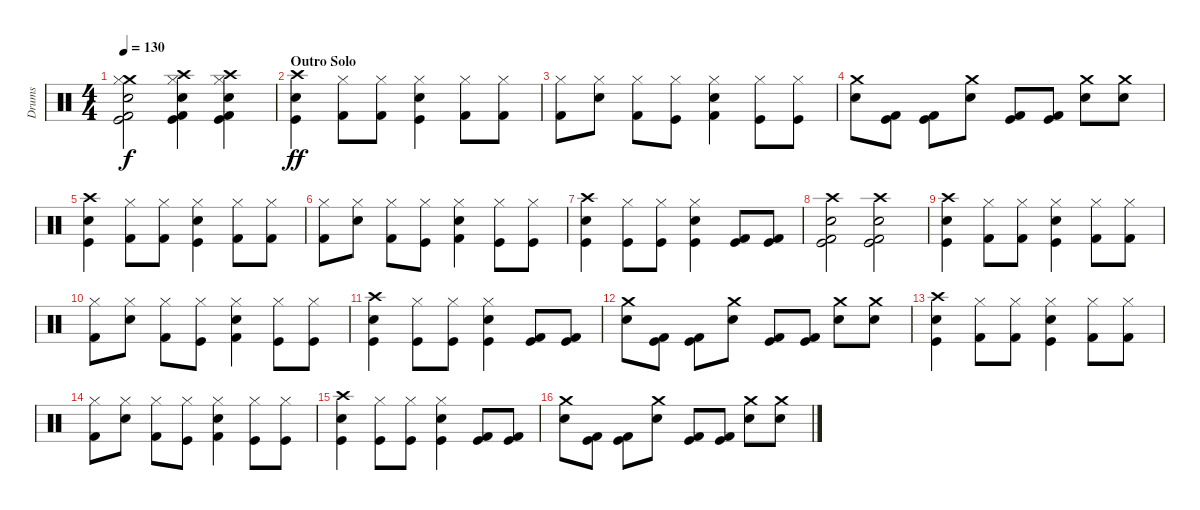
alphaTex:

\track ("Drums" "Drums") {instrument percussion}
\staff {score}
\articulation defaults
\ts (4 4)
\tempo 130
\clef neutral
\ks c
("Crash medium (hit)" "Hi-Hat (closed)" "Snare (hit) 2" "Kick (hit)" "Kick (hit) 2").2{dy f} ("Crash high (hit)" "Hi-Hat (closed)" "Snare (hit) 2" "Kick (hit)" "Kick (hit) 2").4 ("Crash high (hit)" "Hi-Hat (closed)" "Snare (hit) 2" "Kick (hit)" "Kick (hit) 2").4 |
\section ("" "Outro Solo")
("Crash high (hit)" "Snare (hit) 2" "Kick (hit)").4{dy ff} ("Hi-Hat (closed)" "Kick (hit) 2").8 ("Hi-Hat (closed)" "Kick (hit) 2").8 ("Hi-Hat (closed)" "Snare (hit) 2" "Kick (hit)").4 ("Hi-Hat (closed)" "Kick (hit) 2").8 ("Hi-Hat (closed)" "Kick (hit) 2").8 |
("Hi-Hat (closed)" "Kick (hit) 2").8 ("Hi-Hat (closed)" "Snare (hit) 2").8 ("Hi-Hat (closed)" "Kick (hit) 2").8 ("Hi-Hat (closed)" "Kick (hit)").8 ("Hi-Hat (closed)" "Kick (hit) 2" "Snare (hit) 2").4 ("Hi-Hat (closed)" "Kick (hit)").8 ("Hi-Hat (closed)" "Kick (hit)").8 |
("Crash medium (hit)" "Snare (hit) 2").8 ("Kick (hit) 2" "Kick (hit)").8 ("Kick (hit) 2" "Kick (hit)").8 ("Crash medium (hit)" "Snare (hit) 2").8 ("Kick (hit) 2" "Kick (hit)").8 ("Kick (hit) 2" "Kick (hit)").8 ("Crash medium (hit)" "Snare (hit) 2").8 ("Crash medium (hit)" "Snare (hit) 2").8 |
("Crash high (hit)" "Snare (hit) 2" "Kick (hit)").4 ("Hi-Hat (closed)" "Kick (hit) 2").8 ("Hi-Hat (closed)" "Kick (hit) 2").8 ("Hi-Hat (closed)" "Snare (hit) 2" "Kick (hit)").4 ("Hi-Hat (closed)" "Kick (hit) 2").8 ("Hi-Hat (closed)" "Kick (hit) 2").8 |
("Hi-Hat (closed)" "Kick (hit) 2").8 ("Hi-Hat (closed)" "Snare (hit) 2").8 ("Hi-Hat (closed)" "Kick (hit) 2").8 ("Hi-Hat (closed)" "Kick (hit)").8 ("Hi-Hat (closed)" "Kick (hit) 2" "Snare (hit) 2").4 ("Hi-Hat (closed)" "Kick (hit)").8 ("Hi-Hat (closed)" "Kick (hit)").8 |
("Crash high (hit)" "Snare (hit) 2" "Kick (hit)").4 ("Hi-Hat (closed)" "Kick (hit)").8 ("Hi-Hat (closed)" "Kick (hit)").8 ("Hi-Hat (closed)" "Snare (hit) 2" "Kick (hit)").4 ("Kick (hit) 2" "Kick (hit)").8 ("Kick (hit) 2" "Kick (hit)").8 |
("Crash high (hit)" "Snare (hit) 2" "Kick (hit) 2" "Kick (hit)").2 ("Crash high (hit)" "Snare (hit) 2" "Kick (hit) 2" "Kick (hit)").2 |
("Crash high (hit)" "Snare (hit) 2" "Kick (hit)").4 ("Hi-Hat (closed)" "Kick (hit) 2").8 ("Hi-Hat (closed)" "Kick (hit) 2").8 ("Hi-Hat (closed)" "Snare (hit) 2" "Kick (hit)").4 ("Hi-Hat (closed)" "Kick (hit) 2").8 ("Hi-Hat (closed)" "Kick (hit) 2").8 |
("Hi-Hat (closed)" "Kick (hit) 2").8 ("Hi-Hat (closed)" "Snare (hit) 2").8 ("Hi-Hat (closed)" "Kick (hit) 2").8 ("Hi-Hat (closed)" "Kick (hit)").8 ("Hi-Hat (closed)" "Kick (hit) 2" "Snare (hit) 2").4 ("Hi-Hat (closed)" "Kick (hit)").8 ("Hi-Hat (closed)" "Kick (hit)").8 |
("Crash high (hit)" "Snare (hit) 2" "Kick (hit)").4 ("Hi-Hat (closed)" "Kick (hit)").8 ("Hi-Hat (closed)" "Kick (hit)").8 ("Hi-Hat (closed)" "Snare (hit) 2" "Kick (hit)").4 ("Kick (hit) 2" "Kick (hit)").8 ("Kick (hit) 2" "Kick (hit)").8 |
("Crash medium (hit)" "Snare (hit) 2").8 ("Kick (hit) 2" "Kick (hit)").8 ("Kick (hit) 2" "Kick (hit)").8 ("Crash medium (hit)" "Snare (hit) 2").8 ("Kick (hit) 2" "Kick (hit)").8 ("Kick (hit) 2" "Kick (hit)").8 ("Crash medium (hit)" "Snare (hit) 2").8 ("Crash medium (hit)" "Snare (hit) 2").8 |
("Crash high (hit)" "Snare (hit) 2" "Kick (hit)").4 ("Hi-Hat (closed)" "Kick (hit) 2").8 ("Hi-Hat (closed)" "Kick (hit) 2").8 ("Hi-Hat (closed)" "Snare (hit) 2" "Kick (hit)").4 ("Hi-Hat (closed)" "Kick (hit) 2").8 ("Hi-Hat (closed)" "Kick (hit) 2").8 |
("Hi-Hat (closed)" "Kick (hit) 2").8 ("Hi-Hat (closed)" "Snare (hit) 2").8 ("Hi-Hat (closed)" "Kick (hit) 2").8 ("Hi-Hat (closed)" "Kick (hit)").8 ("Hi-Hat (closed)" "Kick (hit) 2" "Snare (hit) 2").4 ("Hi-Hat (closed)" "Kick (hit)").8 ("Hi-Hat (closed)" "Kick (hit)").8 |
("Crash high (hit)" "Snare (hit) 2" "Kick (hit)").4 ("Hi-Hat (closed)" "Kick (hit)").8 ("Hi-Hat (closed)" "Kick (hit)").8 ("Hi-Hat (closed)" "Snare (hit) 2" "Kick (hit)").4 ("Kick (hit) 2" "Kick (hit)").8 ("Kick (hit) 2" "Kick (hit)").8 |
("Crash medium (hit)" "Snare (hit) 2").8 ("Kick (hit) 2" "Kick (hit)").8 ("Kick (hit) 2" "Kick (hit)").8 ("Crash medium (hit)" "Snare (hit) 2").8 ("Kick (hit) 2" "Kick (hit)").8 ("Kick (hit) 2" "Kick (hit)").8 ("Crash medium (hit)" "Snare (hit) 2").8 ("Crash medium (hit)" "Snare (hit) 2").8
